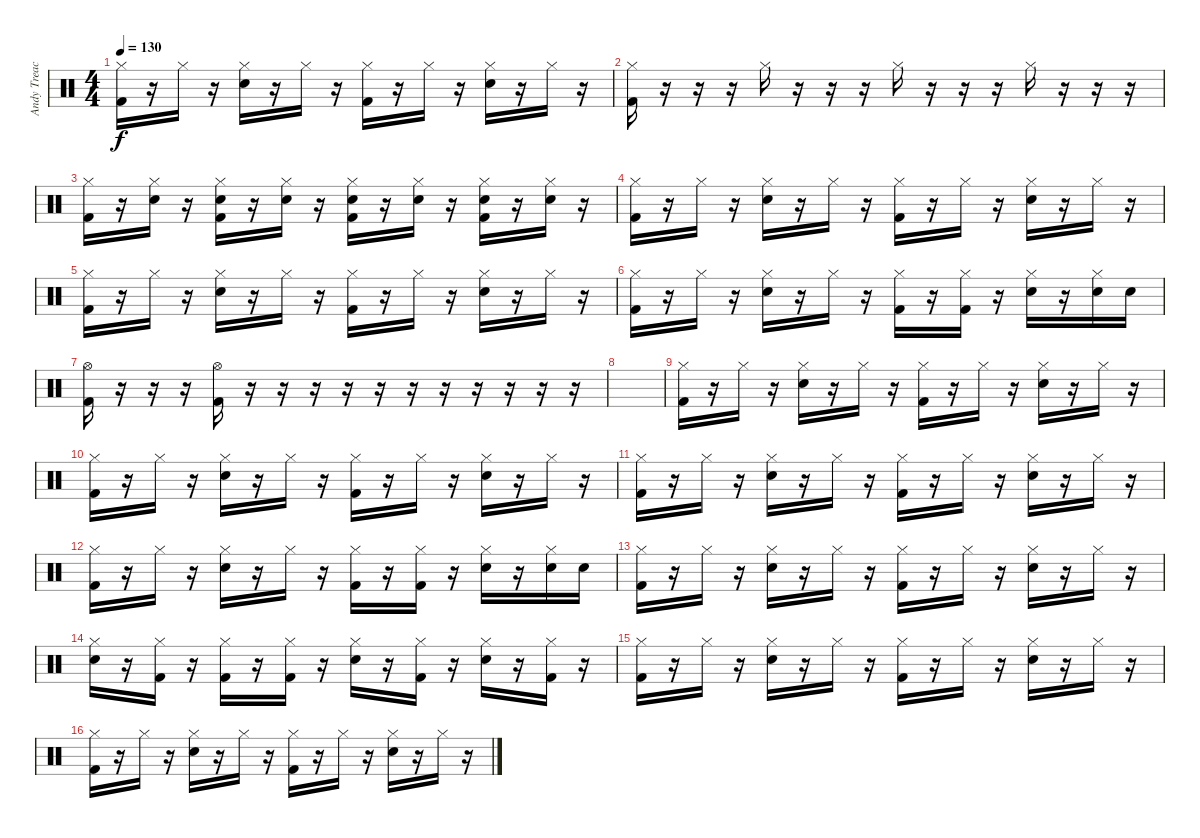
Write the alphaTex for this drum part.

\track ("Andy Treacey" "Andy Treac") {instrument percussion}
\staff {score}
\articulation defaults
\ts (4 4)
\tempo 130
\clef neutral
\ks c
("Hi-Hat (closed)" "Kick (hit) 2").16{dy f} r.16 "Hi-Hat (closed)".16 r.16 ("Hi-Hat (closed)" "Snare (hit) 2").16 r.16 "Hi-Hat (closed)".16 r.16 ("Hi-Hat (closed)" "Kick (hit) 2").16 r.16 "Hi-Hat (closed)".16 r.16 ("Hi-Hat (closed)" "Snare (hit) 2").16 r.16 "Hi-Hat (closed)".16 r.16 |
("Hi-Hat (closed)" "Kick (hit) 2").16 r.16 r.16 r.16 "Hi-Hat (closed)".16 r.16 r.16 r.16 "Hi-Hat (closed)".16 r.16 r.16 r.16 "Hi-Hat (closed)".16 r.16 r.16 r.16 |
("Hi-Hat (closed)" "Kick (hit) 2").16 r.16 ("Hi-Hat (closed)" "Snare (hit) 2").16 r.16 ("Hi-Hat (closed)" "Snare (hit) 2" "Kick (hit) 2").16 r.16 ("Hi-Hat (closed)" "Snare (hit) 2").16 r.16 ("Hi-Hat (closed)" "Snare (hit) 2" "Kick (hit) 2").16 r.16 ("Hi-Hat (closed)" "Snare (hit) 2").16 r.16 ("Hi-Hat (closed)" "Snare (hit) 2" "Kick (hit) 2").16 r.16 ("Hi-Hat (closed)" "Snare (hit) 2").16 r.16 |
("Hi-Hat (closed)" "Kick (hit) 2").16 r.16 "Hi-Hat (closed)".16 r.16 ("Hi-Hat (closed)" "Snare (hit) 2").16 r.16 "Hi-Hat (closed)".16 r.16 ("Hi-Hat (closed)" "Kick (hit) 2").16 r.16 "Hi-Hat (closed)".16 r.16 ("Hi-Hat (closed)" "Snare (hit) 2").16 r.16 "Hi-Hat (closed)".16 r.16 |
("Hi-Hat (closed)" "Kick (hit) 2").16 r.16 "Hi-Hat (closed)".16 r.16 ("Hi-Hat (closed)" "Snare (hit) 2").16 r.16 "Hi-Hat (closed)".16 r.16 ("Hi-Hat (closed)" "Kick (hit) 2").16 r.16 "Hi-Hat (closed)".16 r.16 ("Hi-Hat (closed)" "Snare (hit) 2").16 r.16 "Hi-Hat (closed)".16 r.16 |
("Hi-Hat (closed)" "Kick (hit) 2").16 r.16 "Hi-Hat (closed)".16 r.16 ("Hi-Hat (closed)" "Snare (hit) 2").16 r.16 "Hi-Hat (closed)".16 r.16 ("Hi-Hat (closed)" "Kick (hit) 2").16 r.16 ("Hi-Hat (closed)" "Kick (hit) 2").16 r.16 ("Hi-Hat (closed)" "Snare (hit) 2").16 r.16 ("Hi-Hat (closed)" "Snare (hit) 2").16 "Snare (hit) 2".16 |
("Hi-Hat (open)" "Kick (hit) 2").16 r.16 r.16 r.16 ("Hi-Hat (open)" "Kick (hit) 2").16 r.16 r.16 r.16 r.16 r.16 r.16 r.16 r.16 r.16 r.16 r.16 |
|
("Hi-Hat (closed)" "Kick (hit) 2").16 r.16 "Hi-Hat (closed)".16 r.16 ("Hi-Hat (closed)" "Snare (hit) 2").16 r.16 "Hi-Hat (closed)".16 r.16 ("Hi-Hat (closed)" "Kick (hit) 2").16 r.16 "Hi-Hat (closed)".16 r.16 ("Hi-Hat (closed)" "Snare (hit) 2").16 r.16 "Hi-Hat (closed)".16 r.16 |
("Hi-Hat (closed)" "Kick (hit) 2").16 r.16 "Hi-Hat (closed)".16 r.16 ("Hi-Hat (closed)" "Snare (hit) 2").16 r.16 "Hi-Hat (closed)".16 r.16 ("Hi-Hat (closed)" "Kick (hit) 2").16 r.16 "Hi-Hat (closed)".16 r.16 ("Hi-Hat (closed)" "Snare (hit) 2").16 r.16 "Hi-Hat (closed)".16 r.16 |
("Hi-Hat (closed)" "Kick (hit) 2").16 r.16 "Hi-Hat (closed)".16 r.16 ("Hi-Hat (closed)" "Snare (hit) 2").16 r.16 "Hi-Hat (closed)".16 r.16 ("Hi-Hat (closed)" "Kick (hit) 2").16 r.16 "Hi-Hat (closed)".16 r.16 ("Hi-Hat (closed)" "Snare (hit) 2").16 r.16 "Hi-Hat (closed)".16 r.16 |
("Hi-Hat (closed)" "Kick (hit) 2").16 r.16 "Hi-Hat (closed)".16 r.16 ("Hi-Hat (closed)" "Snare (hit) 2").16 r.16 "Hi-Hat (closed)".16 r.16 ("Hi-Hat (closed)" "Kick (hit) 2").16 r.16 ("Hi-Hat (closed)" "Kick (hit) 2").16 r.16 ("Hi-Hat (closed)" "Snare (hit) 2").16 r.16 ("Hi-Hat (closed)" "Snare (hit) 2").16 "Snare (hit) 2".16 |
("Hi-Hat (closed)" "Kick (hit) 2").16 r.16 "Hi-Hat (closed)".16 r.16 ("Hi-Hat (closed)" "Snare (hit) 2").16 r.16 "Hi-Hat (closed)".16 r.16 ("Hi-Hat (closed)" "Kick (hit) 2").16 r.16 "Hi-Hat (closed)".16 r.16 ("Hi-Hat (closed)" "Snare (hit) 2").16 r.16 "Hi-Hat (closed)".16 r.16 |
("Hi-Hat (closed)" "Snare (hit) 2").16 r.16 ("Hi-Hat (closed)" "Kick (hit) 2").16 r.16 ("Hi-Hat (closed)" "Kick (hit) 2").16 r.16 ("Hi-Hat (closed)" "Kick (hit) 2").16 r.16 ("Hi-Hat (closed)" "Snare (hit) 2").16 r.16 ("Hi-Hat (closed)" "Kick (hit) 2").16 r.16 ("Hi-Hat (closed)" "Snare (hit) 2").16 r.16 ("Hi-Hat (closed)" "Kick (hit) 2").16 r.16 |
("Hi-Hat (closed)" "Kick (hit) 2").16 r.16 "Hi-Hat (closed)".16 r.16 ("Hi-Hat (closed)" "Snare (hit) 2").16 r.16 "Hi-Hat (closed)".16 r.16 ("Hi-Hat (closed)" "Kick (hit) 2").16 r.16 "Hi-Hat (closed)".16 r.16 ("Hi-Hat (closed)" "Snare (hit) 2").16 r.16 "Hi-Hat (closed)".16 r.16 |
("Hi-Hat (closed)" "Kick (hit) 2").16 r.16 "Hi-Hat (closed)".16 r.16 ("Hi-Hat (closed)" "Snare (hit) 2").16 r.16 "Hi-Hat (closed)".16 r.16 ("Hi-Hat (closed)" "Kick (hit) 2").16 r.16 "Hi-Hat (closed)".16 r.16 ("Hi-Hat (closed)" "Snare (hit) 2").16 r.16 "Hi-Hat (closed)".16 r.16
